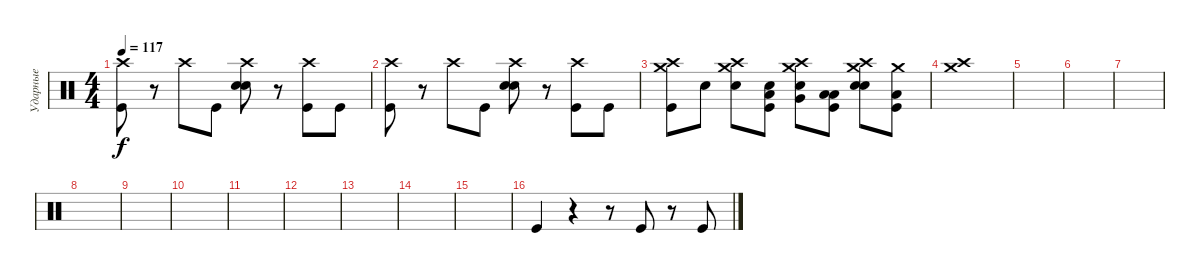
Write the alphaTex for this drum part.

\track ("Ударные" "Ударные") {instrument percussion}
\staff {score}
\articulation defaults
\ts (4 4)
\tempo 117
\clef neutral
\ks c
("Crash high (hit)" "Kick (hit)").8{dy f} r.8 "Crash high (hit)".8 "Kick (hit)".8 ("Crash high (hit)" "Snare (hit) 2" "Snare (hit) 2").8 r.8 ("Crash high (hit)" "Kick (hit)").8 "Kick (hit)".8 |
("Crash high (hit)" "Kick (hit)").8 r.8 "Crash high (hit)".8 "Kick (hit)".8 ("Crash high (hit)" "Snare (hit) 2" "Snare (hit) 2").8 r.8 ("Crash high (hit)" "Kick (hit)").8 "Kick (hit)".8 |
("Crash high (hit)" "Crash medium (hit)" "Kick (hit)").8 "Electric Snare (hit)".8 ("Crash high (hit)" "Crash medium (hit)" "Snare (hit) 2").8 ("Low Floor Tom (hit)" "Electric Snare (hit)" "Kick (hit)").8 ("Crash high (hit)" "Crash medium (hit)" "Very Low Tom (hit)" "Snare (hit) 2").8 ("Low Floor Tom (hit)" "Low Floor Tom (hit)" "Kick (hit)").8 ("Crash high (hit)" "Crash medium (hit)" "Snare (hit) 2" "Snare (hit) 2").8 ("Crash medium (hit)" "Low Floor Tom (hit)" "Kick (hit)").8 |
("Crash high (hit)" "Crash medium (hit)").1 |
|
|
|
|
|
|
|
|
|
|
|
"Kick (hit)".4 r.4 r.8 "Kick (hit)".8 r.8 "Kick (hit)".8
